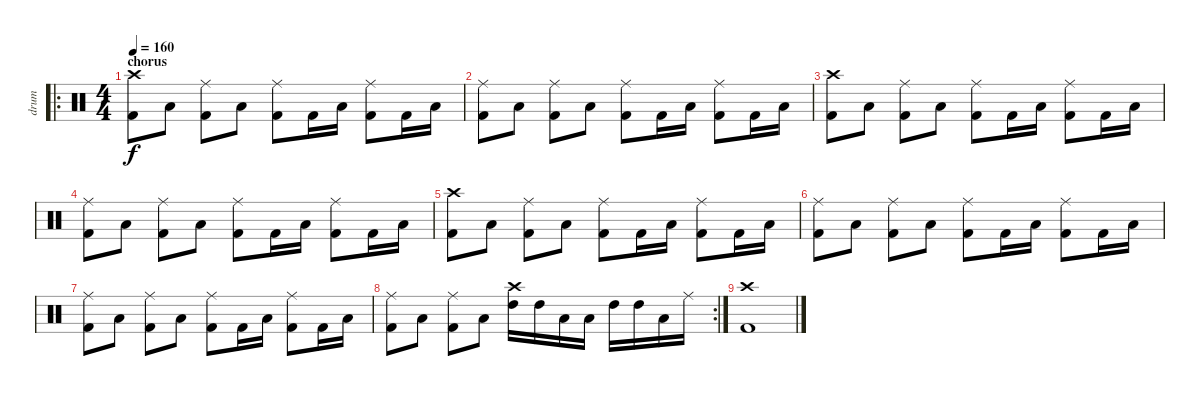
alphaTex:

\track ("drum" "drum") {instrument percussion}
\staff {score}
\articulation defaults
\ro
\ts (4 4)
\section ("" "chorus")
\tempo 160
\clef neutral
\ks c
("Crash high (hit)" "Kick (hit) 2").8{dy f} "Low Floor Tom (hit)".8 ("Ride (middle)" "Kick (hit) 2").8 "Low Floor Tom (hit)".8 ("Ride (middle)" "Kick (hit) 2").8 "Kick (hit) 2".16 "Low Floor Tom (hit)".16 ("Ride (middle)" "Kick (hit) 2").8 "Kick (hit) 2".16 "Low Floor Tom (hit)".16 |
("Ride (middle)" "Kick (hit) 2").8 "Low Floor Tom (hit)".8 ("Ride (middle)" "Kick (hit) 2").8 "Low Floor Tom (hit)".8 ("Ride (middle)" "Kick (hit) 2").8 "Kick (hit) 2".16 "Low Floor Tom (hit)".16 ("Ride (middle)" "Kick (hit) 2").8 "Kick (hit) 2".16 "Low Floor Tom (hit)".16 |
("Crash high (hit)" "Kick (hit) 2").8 "Low Floor Tom (hit)".8 ("Ride (middle)" "Kick (hit) 2").8 "Low Floor Tom (hit)".8 ("Ride (middle)" "Kick (hit) 2").8 "Kick (hit) 2".16 "Low Floor Tom (hit)".16 ("Ride (middle)" "Kick (hit) 2").8 "Kick (hit) 2".16 "Low Floor Tom (hit)".16 |
("Ride (middle)" "Kick (hit) 2").8 "Low Floor Tom (hit)".8 ("Ride (middle)" "Kick (hit) 2").8 "Low Floor Tom (hit)".8 ("Ride (middle)" "Kick (hit) 2").8 "Kick (hit) 2".16 "Low Floor Tom (hit)".16 ("Ride (middle)" "Kick (hit) 2").8 "Kick (hit) 2".16 "Low Floor Tom (hit)".16 |
("Crash high (hit)" "Kick (hit) 2").8 "Low Floor Tom (hit)".8 ("Ride (middle)" "Kick (hit) 2").8 "Low Floor Tom (hit)".8 ("Ride (middle)" "Kick (hit) 2").8 "Kick (hit) 2".16 "Low Floor Tom (hit)".16 ("Ride (middle)" "Kick (hit) 2").8 "Kick (hit) 2".16 "Low Floor Tom (hit)".16 |
("Ride (middle)" "Kick (hit) 2").8 "Low Floor Tom (hit)".8 ("Ride (middle)" "Kick (hit) 2").8 "Low Floor Tom (hit)".8 ("Ride (middle)" "Kick (hit) 2").8 "Kick (hit) 2".16 "Low Floor Tom (hit)".16 ("Ride (middle)" "Kick (hit) 2").8 "Kick (hit) 2".16 "Low Floor Tom (hit)".16 |
("Ride (middle)" "Kick (hit) 2").8 "Low Floor Tom (hit)".8 ("Ride (middle)" "Kick (hit) 2").8 "Low Floor Tom (hit)".8 ("Ride (middle)" "Kick (hit) 2").8 "Kick (hit) 2".16 "Low Floor Tom (hit)".16 ("Ride (middle)" "Kick (hit) 2").8 "Kick (hit) 2".16 "Low Floor Tom (hit)".16 |
\rc 2
("Ride (middle)" "Kick (hit) 2").8 "Low Floor Tom (hit)".8 ("Ride (middle)" "Kick (hit) 2").8 "Low Floor Tom (hit)".8 ("Crash high (hit)" "High Tom (hit)").16 "High Tom (hit)".16 "Low Tom (hit)".16 "Low Floor Tom (hit)".16 "High Tom (hit)".16 "High Tom (hit)".16 "Low Tom (hit)".16 "Ride (middle)".16 |
("Crash high (hit)" "Kick (hit) 2").1{volume 0}
